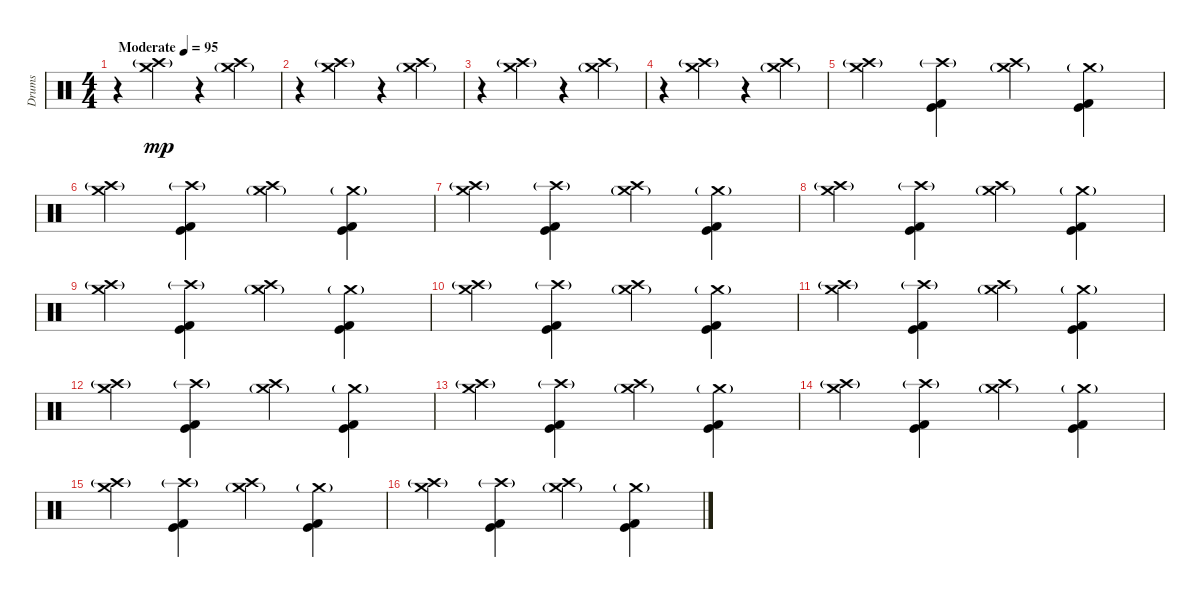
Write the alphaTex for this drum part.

\track ("Drums" "Drums") {instrument percussion}
\staff {score}
\articulation defaults
\ts (4 4)
\tempo (95 "Moderate")
\clef neutral
\ks c
r.4{dy mp} ("Crash medium (hit)" "Crash high (hit)"{g}).4 r.4 ("Crash high (hit)" "Crash medium (hit)"{g}).4 |
r.4 ("Crash medium (hit)" "Crash high (hit)"{g}).4 r.4 ("Crash high (hit)" "Crash medium (hit)"{g}).4 |
r.4 ("Crash medium (hit)" "Crash high (hit)"{g}).4 r.4 ("Crash high (hit)" "Crash medium (hit)"{g}).4 |
r.4 ("Crash medium (hit)" "Crash high (hit)"{g}).4 r.4 ("Crash high (hit)" "Crash medium (hit)"{g}).4 |
("Crash medium (hit)" "Crash high (hit)"{g}).4 ("Crash high (hit)"{g} "Kick (hit)" "Kick (hit) 2").4 ("Crash high (hit)" "Crash medium (hit)"{g}).4 ("Crash medium (hit)"{g} "Kick (hit)" "Kick (hit) 2").4 |
("Crash medium (hit)" "Crash high (hit)"{g}).4 ("Crash high (hit)"{g} "Kick (hit)" "Kick (hit) 2").4 ("Crash high (hit)" "Crash medium (hit)"{g}).4 ("Crash medium (hit)"{g} "Kick (hit)" "Kick (hit) 2").4 |
("Crash medium (hit)" "Crash high (hit)"{g}).4 ("Crash high (hit)"{g} "Kick (hit)" "Kick (hit) 2").4 ("Crash high (hit)" "Crash medium (hit)"{g}).4 ("Crash medium (hit)"{g} "Kick (hit)" "Kick (hit) 2").4 |
("Crash medium (hit)" "Crash high (hit)"{g}).4 ("Crash high (hit)"{g} "Kick (hit)" "Kick (hit) 2").4 ("Crash high (hit)" "Crash medium (hit)"{g}).4 ("Crash medium (hit)"{g} "Kick (hit)" "Kick (hit) 2").4 |
("Crash medium (hit)" "Crash high (hit)"{g}).4 ("Crash high (hit)"{g} "Kick (hit)" "Kick (hit) 2").4 ("Crash high (hit)" "Crash medium (hit)"{g}).4 ("Crash medium (hit)"{g} "Kick (hit)" "Kick (hit) 2").4 |
("Crash medium (hit)" "Crash high (hit)"{g}).4 ("Crash high (hit)"{g} "Kick (hit)" "Kick (hit) 2").4 ("Crash high (hit)" "Crash medium (hit)"{g}).4 ("Crash medium (hit)"{g} "Kick (hit)" "Kick (hit) 2").4 |
("Crash medium (hit)" "Crash high (hit)"{g}).4 ("Crash high (hit)"{g} "Kick (hit)" "Kick (hit) 2").4 ("Crash high (hit)" "Crash medium (hit)"{g}).4 ("Crash medium (hit)"{g} "Kick (hit)" "Kick (hit) 2").4 |
("Crash medium (hit)" "Crash high (hit)"{g}).4 ("Crash high (hit)"{g} "Kick (hit)" "Kick (hit) 2").4 ("Crash high (hit)" "Crash medium (hit)"{g}).4 ("Crash medium (hit)"{g} "Kick (hit)" "Kick (hit) 2").4 |
("Crash medium (hit)" "Crash high (hit)"{g}).4 ("Crash high (hit)"{g} "Kick (hit)" "Kick (hit) 2").4 ("Crash high (hit)" "Crash medium (hit)"{g}).4 ("Crash medium (hit)"{g} "Kick (hit)" "Kick (hit) 2").4 |
("Crash medium (hit)" "Crash high (hit)"{g}).4 ("Crash high (hit)"{g} "Kick (hit)" "Kick (hit) 2").4 ("Crash high (hit)" "Crash medium (hit)"{g}).4 ("Crash medium (hit)"{g} "Kick (hit)" "Kick (hit) 2").4 |
("Crash medium (hit)" "Crash high (hit)"{g}).4 ("Crash high (hit)"{g} "Kick (hit)" "Kick (hit) 2").4 ("Crash high (hit)" "Crash medium (hit)"{g}).4 ("Crash medium (hit)"{g} "Kick (hit)" "Kick (hit) 2").4 |
("Crash medium (hit)" "Crash high (hit)"{g}).4 ("Crash high (hit)"{g} "Kick (hit)" "Kick (hit) 2").4 ("Crash high (hit)" "Crash medium (hit)"{g}).4 ("Crash medium (hit)"{g} "Kick (hit)" "Kick (hit) 2").4
